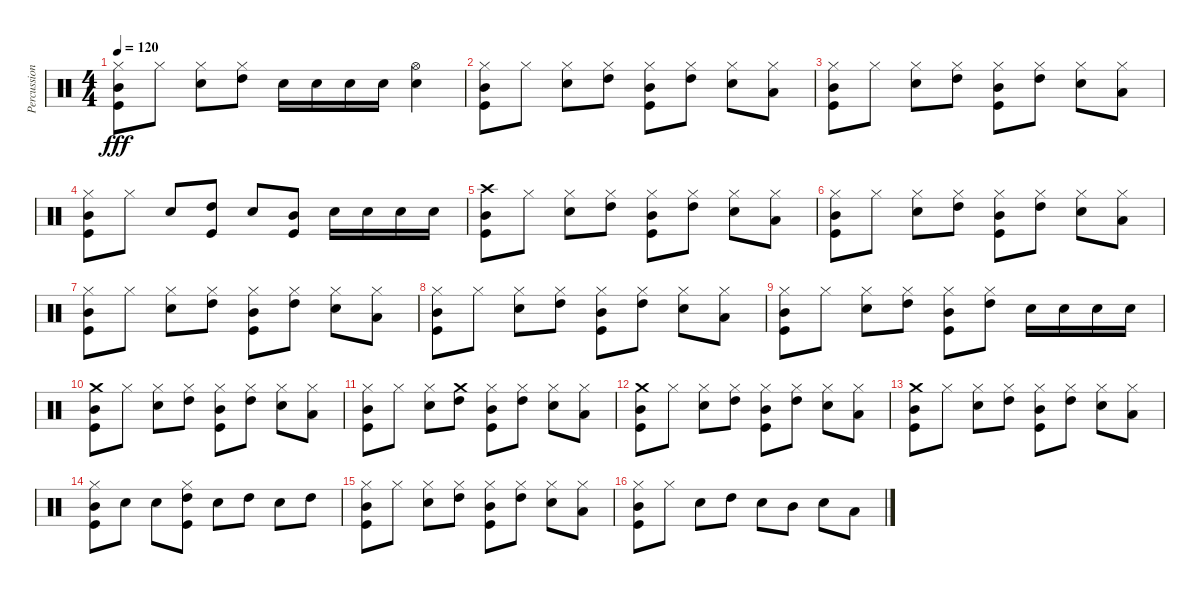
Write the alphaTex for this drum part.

\track ("Percussion" "Percussion") {instrument percussion}
\staff {score}
\articulation defaults
\ts (4 4)
\tempo 120
\clef neutral
\ks c
("Hi-Hat (closed)" "Mid Tom (hit)" "Kick (hit)").8{dy fff} "Hi-Hat (closed)".8 ("Hi-Hat (closed)" "Electric Snare (hit)").8 ("Hi-Hat (closed)" "High Tom (hit)").8 "Electric Snare (hit)".16{volume 16} "Electric Snare (hit)".16 "Electric Snare (hit)".16 "Electric Snare (hit)".16 ("Hi-Hat (open)" "Electric Snare (hit)").4 |
("Hi-Hat (closed)" "Mid Tom (hit)" "Kick (hit)").8{volume 12} "Hi-Hat (closed)".8 ("Hi-Hat (closed)" "Electric Snare (hit)").8 ("Hi-Hat (closed)" "High Tom (hit)").8 ("Hi-Hat (closed)" "Mid Tom (hit)" "Kick (hit)").8 ("Hi-Hat (closed)" "High Tom (hit)").8 ("Hi-Hat (closed)" "Electric Snare (hit)").8 ("Hi-Hat (closed)" "Low Tom (hit)").8 |
("Hi-Hat (closed)" "Mid Tom (hit)" "Kick (hit)").8 "Hi-Hat (closed)".8 ("Hi-Hat (closed)" "Electric Snare (hit)").8 ("Hi-Hat (closed)" "High Tom (hit)").8 ("Hi-Hat (closed)" "Mid Tom (hit)" "Kick (hit)").8 ("Hi-Hat (closed)" "High Tom (hit)").8 ("Hi-Hat (closed)" "Electric Snare (hit)").8 ("Hi-Hat (closed)" "Low Tom (hit)").8 |
("Hi-Hat (closed)" "Mid Tom (hit)" "Kick (hit)").8 "Hi-Hat (closed)".8 "Electric Snare (hit)".8 ("High Tom (hit)" "Kick (hit)").8 "Electric Snare (hit)".8 ("Mid Tom (hit)" "Kick (hit)").8 "Electric Snare (hit)".16{volume 16} "Electric Snare (hit)".16 "Electric Snare (hit)".16 "Electric Snare (hit)".16 |
("Crash high (hit)" "Mid Tom (hit)" "Kick (hit)").8{volume 12} "Hi-Hat (closed)".8 ("Hi-Hat (closed)" "Electric Snare (hit)").8 ("Hi-Hat (closed)" "High Tom (hit)").8 ("Hi-Hat (closed)" "Mid Tom (hit)" "Kick (hit)").8 ("Hi-Hat (closed)" "High Tom (hit)").8 ("Hi-Hat (closed)" "Electric Snare (hit)").8 ("Hi-Hat (closed)" "Low Tom (hit)").8 |
("Hi-Hat (closed)" "Mid Tom (hit)" "Kick (hit)").8 "Hi-Hat (closed)".8 ("Hi-Hat (closed)" "Electric Snare (hit)").8 ("Hi-Hat (closed)" "High Tom (hit)").8 ("Hi-Hat (closed)" "Mid Tom (hit)" "Kick (hit)").8 ("Hi-Hat (closed)" "High Tom (hit)").8 ("Hi-Hat (closed)" "Electric Snare (hit)").8 ("Hi-Hat (closed)" "Low Tom (hit)").8 |
("Hi-Hat (closed)" "Mid Tom (hit)" "Kick (hit)").8 "Hi-Hat (closed)".8 ("Hi-Hat (closed)" "Electric Snare (hit)").8 ("Hi-Hat (closed)" "High Tom (hit)").8 ("Hi-Hat (closed)" "Mid Tom (hit)" "Kick (hit)").8 ("Hi-Hat (closed)" "High Tom (hit)").8 ("Hi-Hat (closed)" "Electric Snare (hit)").8 ("Hi-Hat (closed)" "Low Tom (hit)").8 |
("Hi-Hat (closed)" "Mid Tom (hit)" "Kick (hit)").8 "Hi-Hat (closed)".8 ("Hi-Hat (closed)" "Electric Snare (hit)").8 ("Hi-Hat (closed)" "High Tom (hit)").8 ("Hi-Hat (closed)" "Mid Tom (hit)" "Kick (hit)").8 ("Hi-Hat (closed)" "High Tom (hit)").8 ("Hi-Hat (closed)" "Electric Snare (hit)").8 ("Hi-Hat (closed)" "Low Tom (hit)").8 |
("Hi-Hat (closed)" "Mid Tom (hit)" "Kick (hit)").8 "Hi-Hat (closed)".8 ("Hi-Hat (closed)" "Electric Snare (hit)").8 ("Hi-Hat (closed)" "High Tom (hit)").8 ("Hi-Hat (closed)" "Mid Tom (hit)" "Kick (hit)").8 ("Hi-Hat (closed)" "High Tom (hit)").8 "Electric Snare (hit)".16{volume 16} "Electric Snare (hit)".16 "Electric Snare (hit)".16 "Electric Snare (hit)".16 |
("Crash medium (hit)" "Mid Tom (hit)" "Kick (hit)").8{volume 12} "Hi-Hat (closed)".8 ("Hi-Hat (closed)" "Electric Snare (hit)").8 ("Hi-Hat (closed)" "High Tom (hit)").8 ("Hi-Hat (closed)" "Mid Tom (hit)" "Kick (hit)").8 ("Hi-Hat (closed)" "High Tom (hit)").8 ("Hi-Hat (closed)" "Electric Snare (hit)").8 ("Hi-Hat (closed)" "Low Tom (hit)").8 |
("Hi-Hat (closed)" "Mid Tom (hit)" "Kick (hit)").8 "Hi-Hat (closed)".8 ("Hi-Hat (closed)" "Electric Snare (hit)").8 ("Crash medium (hit)" "High Tom (hit)").8 ("Hi-Hat (closed)" "Mid Tom (hit)" "Kick (hit)").8 ("Hi-Hat (closed)" "High Tom (hit)").8 ("Hi-Hat (closed)" "Electric Snare (hit)").8 ("Hi-Hat (closed)" "Low Tom (hit)").8 |
("Crash medium (hit)" "Mid Tom (hit)" "Kick (hit)").8 "Hi-Hat (closed)".8 ("Hi-Hat (closed)" "Electric Snare (hit)").8 ("Hi-Hat (closed)" "High Tom (hit)").8 ("Hi-Hat (closed)" "Mid Tom (hit)" "Kick (hit)").8 ("Hi-Hat (closed)" "High Tom (hit)").8 ("Hi-Hat (closed)" "Electric Snare (hit)").8 ("Hi-Hat (closed)" "Low Tom (hit)").8 |
("Crash medium (hit)" "Mid Tom (hit)" "Kick (hit)").8 "Hi-Hat (closed)".8 ("Hi-Hat (closed)" "Electric Snare (hit)").8 ("Hi-Hat (closed)" "High Tom (hit)").8 ("Hi-Hat (closed)" "Mid Tom (hit)" "Kick (hit)").8 ("Hi-Hat (closed)" "High Tom (hit)").8 ("Hi-Hat (closed)" "Electric Snare (hit)").8 ("Hi-Hat (closed)" "Low Tom (hit)").8 |
("Hi-Hat (closed)" "Mid Tom (hit)" "Kick (hit)").8{volume 16} "Electric Snare (hit)".8 "Electric Snare (hit)".8 ("Hi-Hat (closed)" "High Tom (hit)" "Kick (hit)").8{balance 0} "Electric Snare (hit)".8{balance 16} "High Tom (hit)".8{balance 0} "Electric Snare (hit)".8{balance 16} "High Tom (hit)".8{balance 0} |
("Hi-Hat (closed)" "Mid Tom (hit)" "Kick (hit)").8{volume 12 balance 8} "Hi-Hat (closed)".8 ("Hi-Hat (closed)" "Electric Snare (hit)").8 ("Hi-Hat (closed)" "High Tom (hit)").8 ("Hi-Hat (closed)" "Mid Tom (hit)" "Kick (hit)").8 ("Hi-Hat (closed)" "High Tom (hit)").8 ("Hi-Hat (closed)" "Electric Snare (hit)").8 ("Hi-Hat (closed)" "Low Tom (hit)").8 |
("Hi-Hat (closed)" "Mid Tom (hit)" "Kick (hit)").8 "Hi-Hat (closed)".8 "Electric Snare (hit)".8{volume 16} "High Tom (hit)".8 "Electric Snare (hit)".8 "Mid Tom (hit)".8 "Electric Snare (hit)".8 "Low Tom (hit)".8
